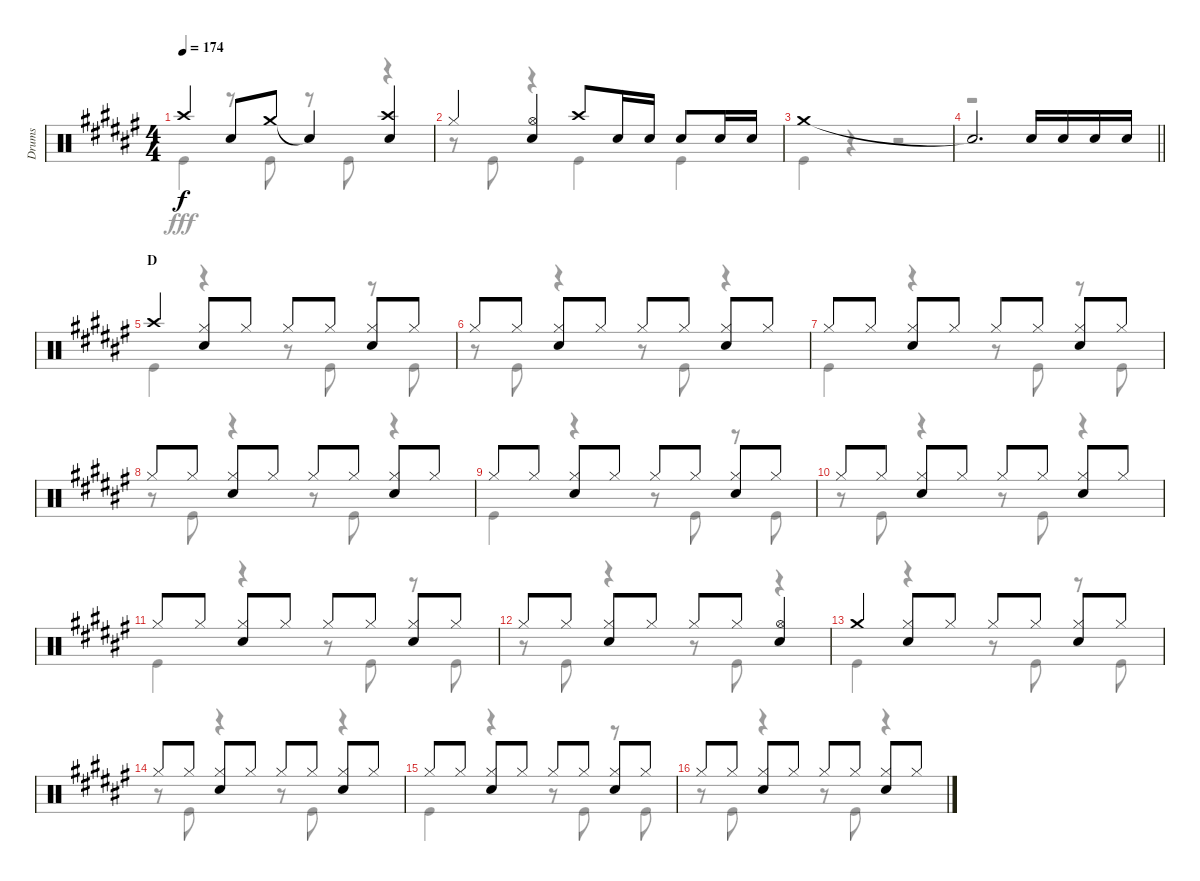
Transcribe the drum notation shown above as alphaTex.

\track ("Drums" "Drums") {instrument percussion}
\staff {score}
\articulation defaults
\voice
\ts (4 4)
\tempo 174
\clef neutral
\ks f# "Crash high (hit)".4{dy f} "Snare (hit) 2".8 "Crash medium (hit)".8 "Snare (hit)"{t}.4
("Crash high (hit)" "Snare (hit) 2").4 |
"Hi-Hat (closed)".4 ("Hi-Hat (open)" "Snare (hit) 2").4 "Crash high (hit)".8 "Snare (hit) 2".16 "Snare (hit) 2".16 "Snare (hit) 2".8 "Snare (hit) 2".16 "Snare (hit) 2".16 |
"Crash medium (hit)".1 |
\barLineRight lightlight "Snare (hit)"{t}.2{d} "Snare (hit) 2".16 "Snare (hit) 2".16 "Snare (hit) 2".16 "Snare (hit) 2".16
|
\section ("" "D")
"Crash high (hit)".4 ("Hi-Hat (closed)" "Snare (hit) 2").8 "Hi-Hat (closed)".8 "Hi-Hat (closed)".8 "Hi-Hat (closed)".8 ("Hi-Hat (closed)" "Snare (hit) 2").8 "Hi-Hat (closed)".8 |
"Hi-Hat (closed)".8 "Hi-Hat (closed)".8 ("Hi-Hat (closed)" "Snare (hit) 2").8 "Hi-Hat (closed)".8 "Hi-Hat (closed)".8 "Hi-Hat (closed)".8 ("Hi-Hat (closed)" "Snare (hit) 2").8 "Hi-Hat (closed)".8 |
"Hi-Hat (closed)".8 "Hi-Hat (closed)".8 ("Hi-Hat (closed)" "Snare (hit) 2").8 "Hi-Hat (closed)".8 "Hi-Hat (closed)".8 "Hi-Hat (closed)".8 ("Hi-Hat (closed)" "Snare (hit) 2").8 "Hi-Hat (closed)".8 |
"Hi-Hat (closed)".8 "Hi-Hat (closed)".8 ("Hi-Hat (closed)" "Snare (hit) 2").8 "Hi-Hat (closed)".8 "Hi-Hat (closed)".8 "Hi-Hat (closed)".8 ("Hi-Hat (closed)" "Snare (hit) 2").8 "Hi-Hat (closed)".8 |
"Hi-Hat (closed)".8 "Hi-Hat (closed)".8 ("Hi-Hat (closed)" "Snare (hit) 2").8 "Hi-Hat (closed)".8 "Hi-Hat (closed)".8 "Hi-Hat (closed)".8 ("Hi-Hat (closed)" "Snare (hit) 2").8 "Hi-Hat (closed)".8 |
"Hi-Hat (closed)".8 "Hi-Hat (closed)".8 ("Hi-Hat (closed)" "Snare (hit) 2").8 "Hi-Hat (closed)".8 "Hi-Hat (closed)".8 "Hi-Hat (closed)".8 ("Hi-Hat (closed)" "Snare (hit) 2").8 "Hi-Hat (closed)".8 |
"Hi-Hat (closed)".8 "Hi-Hat (closed)".8 ("Hi-Hat (closed)" "Snare (hit) 2").8 "Hi-Hat (closed)".8 "Hi-Hat (closed)".8 "Hi-Hat (closed)".8 ("Hi-Hat (closed)" "Snare (hit) 2").8 "Hi-Hat (closed)".8 |
"Hi-Hat (closed)".8 "Hi-Hat (closed)".8 ("Hi-Hat (closed)" "Snare (hit) 2").8 "Hi-Hat (closed)".8 "Hi-Hat (closed)".8 "Hi-Hat (closed)".8 ("Hi-Hat (open)" "Snare (hit) 2").4 |
"Crash medium (hit)".4 ("Hi-Hat (closed)" "Snare (hit) 2").8 "Hi-Hat (closed)".8 "Hi-Hat (closed)".8 "Hi-Hat (closed)".8 ("Hi-Hat (closed)" "Snare (hit) 2").8 "Hi-Hat (closed)".8 |
"Hi-Hat (closed)".8 "Hi-Hat (closed)".8 ("Hi-Hat (closed)" "Snare (hit) 2").8 "Hi-Hat (closed)".8 "Hi-Hat (closed)".8 "Hi-Hat (closed)".8 ("Hi-Hat (closed)" "Snare (hit) 2").8 "Hi-Hat (closed)".8 |
"Hi-Hat (closed)".8 "Hi-Hat (closed)".8 ("Hi-Hat (closed)" "Snare (hit) 2").8 "Hi-Hat (closed)".8 "Hi-Hat (closed)".8 "Hi-Hat (closed)".8 ("Hi-Hat (closed)" "Snare (hit) 2").8 "Hi-Hat (closed)".8 |
"Hi-Hat (closed)".8 "Hi-Hat (closed)".8 ("Hi-Hat (closed)" "Snare (hit) 2").8 "Hi-Hat (closed)".8 "Hi-Hat (closed)".8 "Hi-Hat (closed)".8 ("Hi-Hat (closed)" "Snare (hit) 2").8 "Hi-Hat (closed)".8
\voice
\clef neutral
\ottava regular
\simile none
\ks f# "Kick (hit)".4{dy fff}
r.8 "Kick (hit)".8 r.8 "Kick (hit)".8 r.4 |
r.8 "Kick (hit)".8 r.4 "Kick (hit)".4 "Kick (hit)".4 |
"Kick (hit)".4 r.4 r.2 |
\barLineRight lightlight
r.1 |
"Kick (hit)".4 r.4 r.8 "Kick (hit)".8 r.8 "Kick (hit)".8 |
r.8 "Kick (hit)".8 r.4 r.8 "Kick (hit)".8 r.4 |
"Kick (hit)".4 r.4 r.8 "Kick (hit)".8 r.8 "Kick (hit)".8 |
r.8 "Kick (hit)".8 r.4 r.8 "Kick (hit)".8 r.4 |
"Kick (hit)".4 r.4 r.8 "Kick (hit)".8 r.8 "Kick (hit)".8 |
r.8 "Kick (hit)".8 r.4 r.8 "Kick (hit)".8 r.4 |
"Kick (hit)".4 r.4 r.8 "Kick (hit)".8 r.8 "Kick (hit)".8 |
r.8 "Kick (hit)".8 r.4 r.8 "Kick (hit)".8 r.4 |
"Kick (hit)".4 r.4 r.8 "Kick (hit)".8 r.8 "Kick (hit)".8 |
r.8 "Kick (hit)".8 r.4 r.8 "Kick (hit)".8 r.4 |
"Kick (hit)".4 r.4 r.8 "Kick (hit)".8 r.8 "Kick (hit)".8 |
r.8 "Kick (hit)".8 r.4 r.8 "Kick (hit)".8 r.4
